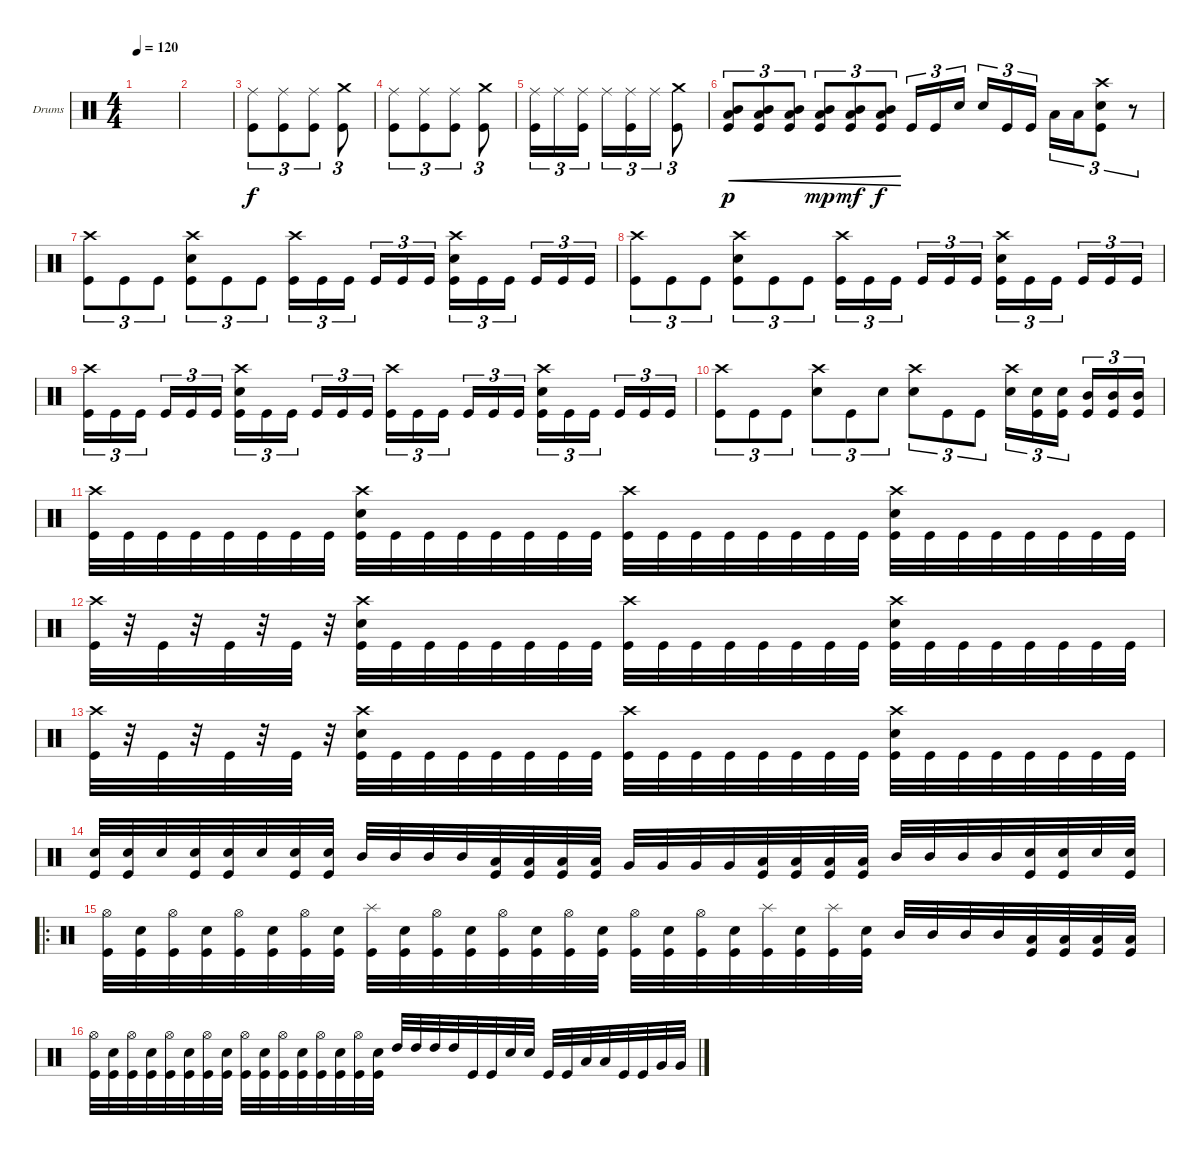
\defaultSystemsLayout 4
\bracketExtendMode groupsimilarinstruments
\firstSystemTrackNameOrientation horizontal
\otherSystemsTrackNameOrientation horizontal
\track ("Drumkit" "Drums") {instrument percussion}
\staff {score}
\articulation defaults
\ts (4 4)
\tempo 120
\clef neutral
\ks c
|
|
("Kick (hit)" "Ride (middle)").8{tu (3 2)} ("Kick (hit)" "Ride (middle)").8{tu (3 2)} ("Kick (hit)" "Ride (middle)").8{tu (3 2)} ("Kick (hit)" "Crash medium (hit)").8{tu (3 2)} |
("Kick (hit)" "Ride (middle)").8{tu (3 2)} ("Kick (hit)" "Ride (middle)").8{tu (3 2)} ("Kick (hit)" "Ride (middle)").8{tu (3 2)} ("Kick (hit)" "Crash medium (hit)").8{tu (3 2)} |
("Ride (middle)" "Kick (hit)").16{tu (3 2) dy f} "Ride (middle)".16{tu (3 2)} ("Ride (middle)" "Kick (hit)").16{tu (3 2)} "Ride (middle)".16{tu (3 2)} ("Ride (middle)" "Kick (hit)").16{tu (3 2)} "Ride (middle)".16{tu (3 2)} ("Kick (hit)" "Crash medium (hit)").8{tu (3 2)} |
("Kick (hit)" "Low Tom (hit)" "Mid Tom (hit)").8{tu (3 2) cre dy p} ("Kick (hit)" "Low Tom (hit)" "Mid Tom (hit)").8{tu (3 2) cre} ("Kick (hit)" "Low Tom (hit)" "Mid Tom (hit)").8{tu (3 2) cre} ("Kick (hit)" "Low Tom (hit)" "Mid Tom (hit)").8{tu (3 2) cre dy mp} ("Kick (hit)" "Low Tom (hit)" "Mid Tom (hit)").8{tu (3 2) cre dy mf} ("Kick (hit)" "Low Tom (hit)" "Mid Tom (hit)").8{tu (3 2) cre dy f} "Kick (hit)".16{tu (3 2)} "Kick (hit)".16{tu (3 2)} "Snare (hit) 2".16{tu (3 2)} "Snare (hit) 2".16{tu (3 2)} "Kick (hit)".16{tu (3 2)} "Kick (hit)".16{tu (3 2)} "Low Tom (hit)".16{tu (3 2)} "Low Tom (hit)".16{tu (3 2)} ("Kick (hit)" "Snare (hit) 2" "Crash high (hit)").8{tu (3 2)} r.8{tu (3 2)} |
("Kick (hit)" "Crash high (hit)").8{tu (3 2)} "Kick (hit)".8{tu (3 2)} "Kick (hit)".8{tu (3 2)} ("Kick (hit)" "Snare (hit) 2" "Crash high (hit)").8{tu (3 2)} "Kick (hit)".8{tu (3 2)} "Kick (hit)".8{tu (3 2)} ("Kick (hit)" "Crash high (hit)").16{tu (3 2)} "Kick (hit)".16{tu (3 2)} "Kick (hit)".16{tu (3 2)} "Kick (hit)".16{tu (3 2)} "Kick (hit)".16{tu (3 2)} "Kick (hit)".16{tu (3 2)} ("Kick (hit)" "Snare (hit) 2" "Crash high (hit)").16{tu (3 2)} "Kick (hit)".16{tu (3 2)} "Kick (hit)".16{tu (3 2)} "Kick (hit)".16{tu (3 2)} "Kick (hit)".16{tu (3 2)} "Kick (hit)".16{tu (3 2)} |
("Kick (hit)" "Crash high (hit)").8{tu (3 2)} "Kick (hit)".8{tu (3 2)} "Kick (hit)".8{tu (3 2)} ("Kick (hit)" "Snare (hit) 2" "Crash high (hit)").8{tu (3 2)} "Kick (hit)".8{tu (3 2)} "Kick (hit)".8{tu (3 2)} ("Kick (hit)" "Crash high (hit)").16{tu (3 2)} "Kick (hit)".16{tu (3 2)} "Kick (hit)".16{tu (3 2)} "Kick (hit)".16{tu (3 2)} "Kick (hit)".16{tu (3 2)} "Kick (hit)".16{tu (3 2)} ("Kick (hit)" "Snare (hit) 2" "Crash high (hit)").16{tu (3 2)} "Kick (hit)".16{tu (3 2)} "Kick (hit)".16{tu (3 2)} "Kick (hit)".16{tu (3 2)} "Kick (hit)".16{tu (3 2)} "Kick (hit)".16{tu (3 2)} |
("Kick (hit)" "Crash high (hit)").16{tu (3 2)} "Kick (hit)".16{tu (3 2)} "Kick (hit)".16{tu (3 2)} "Kick (hit)".16{tu (3 2)} "Kick (hit)".16{tu (3 2)} "Kick (hit)".16{tu (3 2)} ("Kick (hit)" "Snare (hit) 2" "Crash high (hit)").16{tu (3 2)} "Kick (hit)".16{tu (3 2)} "Kick (hit)".16{tu (3 2)} "Kick (hit)".16{tu (3 2)} "Kick (hit)".16{tu (3 2)} "Kick (hit)".16{tu (3 2)} ("Kick (hit)" "Crash high (hit)").16{tu (3 2)} "Kick (hit)".16{tu (3 2)} "Kick (hit)".16{tu (3 2)} "Kick (hit)".16{tu (3 2)} "Kick (hit)".16{tu (3 2)} "Kick (hit)".16{tu (3 2)} ("Kick (hit)" "Snare (hit) 2" "Crash high (hit)").16{tu (3 2)} "Kick (hit)".16{tu (3 2)} "Kick (hit)".16{tu (3 2)} "Kick (hit)".16{tu (3 2)} "Kick (hit)".16{tu (3 2)} "Kick (hit)".16{tu (3 2)} |
("Kick (hit)" "Crash high (hit)").8{tu (3 2)} "Kick (hit)".8{tu (3 2)} "Kick (hit)".8{tu (3 2)} ("Snare (hit) 2" "Crash high (hit)").8{tu (3 2)} "Kick (hit)".8{tu (3 2)} "Snare (hit) 2".8{tu (3 2)} ("Crash high (hit)" "Snare (hit) 2").8{tu (3 2)} "Kick (hit)".8{tu (3 2)} "Kick (hit)".8{tu (3 2)} ("Snare (hit) 2" "Crash high (hit)").16{tu (3 2)} ("Kick (hit)" "Snare (hit) 2").16{tu (3 2)} ("Kick (hit)" "Snare (hit) 2").16{tu (3 2)} ("Kick (hit)" "Mid Tom (hit)").16{tu (3 2)} ("Kick (hit)" "Mid Tom (hit)").16{tu (3 2)} ("Kick (hit)" "Mid Tom (hit)").16{tu (3 2)} |
("Kick (hit)" "Crash high (hit)").32 "Kick (hit)".32 "Kick (hit)".32 "Kick (hit)".32 "Kick (hit)".32 "Kick (hit)".32 "Kick (hit)".32 "Kick (hit)".32 ("Kick (hit)" "Crash high (hit)" "Snare (hit) 2").32 "Kick (hit)".32 "Kick (hit)".32 "Kick (hit)".32 "Kick (hit)".32 "Kick (hit)".32 "Kick (hit)".32 "Kick (hit)".32 ("Kick (hit)" "Crash high (hit)").32 "Kick (hit)".32 "Kick (hit)".32 "Kick (hit)".32 "Kick (hit)".32 "Kick (hit)".32 "Kick (hit)".32 "Kick (hit)".32 ("Kick (hit)" "Crash high (hit)" "Snare (hit) 2").32 "Kick (hit)".32 "Kick (hit)".32 "Kick (hit)".32 "Kick (hit)".32 "Kick (hit)".32 "Kick (hit)".32 "Kick (hit)".32 |
("Kick (hit)" "Crash high (hit)").32 r.32 "Kick (hit)".32 r.32 "Kick (hit)".32 r.32 "Kick (hit)".32 r.32 ("Kick (hit)" "Crash high (hit)" "Snare (hit) 2").32 "Kick (hit)".32 "Kick (hit)".32 "Kick (hit)".32 "Kick (hit)".32 "Kick (hit)".32 "Kick (hit)".32 "Kick (hit)".32 ("Kick (hit)" "Crash high (hit)").32 "Kick (hit)".32 "Kick (hit)".32 "Kick (hit)".32 "Kick (hit)".32 "Kick (hit)".32 "Kick (hit)".32 "Kick (hit)".32 ("Kick (hit)" "Crash high (hit)" "Snare (hit) 2").32 "Kick (hit)".32 "Kick (hit)".32 "Kick (hit)".32 "Kick (hit)".32 "Kick (hit)".32 "Kick (hit)".32 "Kick (hit)".32 |
("Kick (hit)" "Crash high (hit)").32 r.32 "Kick (hit)".32 r.32 "Kick (hit)".32 r.32 "Kick (hit)".32 r.32 ("Kick (hit)" "Crash high (hit)" "Snare (hit) 2").32 "Kick (hit)".32 "Kick (hit)".32 "Kick (hit)".32 "Kick (hit)".32 "Kick (hit)".32 "Kick (hit)".32 "Kick (hit)".32 ("Kick (hit)" "Crash high (hit)").32 "Kick (hit)".32 "Kick (hit)".32 "Kick (hit)".32 "Kick (hit)".32 "Kick (hit)".32 "Kick (hit)".32 "Kick (hit)".32 ("Kick (hit)" "Crash high (hit)" "Snare (hit) 2").32 "Kick (hit)".32 "Kick (hit)".32 "Kick (hit)".32 "Kick (hit)".32 "Kick (hit)".32 "Kick (hit)".32 "Kick (hit)".32 |
("Snare (hit) 2" "Kick (hit)").32 ("Snare (hit) 2" "Kick (hit)").32 "Snare (hit) 2".32 ("Snare (hit) 2" "Kick (hit)").32 ("Snare (hit) 2" "Kick (hit)").32 "Snare (hit) 2".32 ("Snare (hit) 2" "Kick (hit)").32 ("Snare (hit) 2" "Kick (hit)").32 "Mid Tom (hit)".32 "Mid Tom (hit)".32 "Mid Tom (hit)".32 "Mid Tom (hit)".32 ("Low Tom (hit)" "Kick (hit)").32 ("Low Tom (hit)" "Kick (hit)").32 ("Low Tom (hit)" "Kick (hit)").32 ("Low Tom (hit)" "Kick (hit)").32 "Very Low Tom (hit)".32 "Very Low Tom (hit)".32 "Very Low Tom (hit)".32 "Very Low Tom (hit)".32 ("Low Tom (hit)" "Kick (hit)").32 ("Low Tom (hit)" "Kick (hit)").32 ("Low Tom (hit)" "Kick (hit)").32 ("Low Tom (hit)" "Kick (hit)").32 "Mid Tom (hit)".32 "Mid Tom (hit)".32 "Mid Tom (hit)".32 "Mid Tom (hit)".32 ("Snare (hit) 2" "Kick (hit)").32 ("Snare (hit) 2" "Kick (hit)").32 "Snare (hit) 2".32 ("Snare (hit) 2" "Kick (hit)").32 |
\ro
("Kick (hit)" "Hi-Hat (open)").32 ("Kick (hit)" "Snare (hit) 2").32 ("Kick (hit)" "Hi-Hat (open)").32 ("Kick (hit)" "Snare (hit) 2").32 ("Kick (hit)" "Hi-Hat (open)").32 ("Kick (hit)" "Snare (hit) 2").32 ("Kick (hit)" "Hi-Hat (open)").32 ("Kick (hit)" "Snare (hit) 2").32 ("Kick (hit)" "Splash (hit)").32 ("Kick (hit)" "Snare (hit) 2").32 ("Kick (hit)" "Hi-Hat (open)").32 ("Kick (hit)" "Snare (hit) 2").32 ("Kick (hit)" "Hi-Hat (open)").32 ("Kick (hit)" "Snare (hit) 2").32 ("Kick (hit)" "Hi-Hat (open)").32 ("Kick (hit)" "Snare (hit) 2").32 ("Kick (hit)" "Hi-Hat (open)").32 ("Kick (hit)" "Snare (hit) 2").32 ("Kick (hit)" "Hi-Hat (open)").32 ("Kick (hit)" "Snare (hit) 2").32 ("Kick (hit)" "Splash (hit)").32 ("Kick (hit)" "Snare (hit) 2").32 ("Kick (hit)" "Splash (hit)").32 ("Kick (hit)" "Snare (hit) 2").32 "Mid Tom (hit)".32 "Mid Tom (hit)".32 "Mid Tom (hit)".32 "Mid Tom (hit)".32 ("Low Tom (hit)" "Kick (hit)").32 ("Low Tom (hit)" "Kick (hit)").32 ("Low Tom (hit)" "Kick (hit)").32 ("Low Tom (hit)" "Kick (hit)").32 |
("Kick (hit)" "Hi-Hat (open)").32 ("Kick (hit)" "Snare (hit) 2").32 ("Kick (hit)" "Hi-Hat (open)").32 ("Kick (hit)" "Snare (hit) 2").32 ("Kick (hit)" "Hi-Hat (open)").32 ("Kick (hit)" "Snare (hit) 2").32 ("Kick (hit)" "Hi-Hat (open)").32 ("Kick (hit)" "Snare (hit) 2").32 ("Kick (hit)" "Hi-Hat (open)").32 ("Kick (hit)" "Snare (hit) 2").32 ("Kick (hit)" "Hi-Hat (open)").32 ("Kick (hit)" "Snare (hit) 2").32 ("Kick (hit)" "Hi-Hat (open)").32 ("Kick (hit)" "Snare (hit) 2").32 ("Kick (hit)" "Hi-Hat (open)").32 ("Kick (hit)" "Snare (hit) 2").32 "High Tom (hit)".32 "High Tom (hit)".32 "High Tom (hit)".32 "High Tom (hit)".32 "Kick (hit)".32 "Kick (hit)".32 "Snare (hit) 2".32 "Snare (hit) 2".32 "Kick (hit)".32 "Kick (hit)".32 "Low Tom (hit)".32 "Low Tom (hit)".32 "Kick (hit)".32 "Kick (hit)".32 "Very Low Tom (hit)".32 "Very Low Tom (hit)".32
